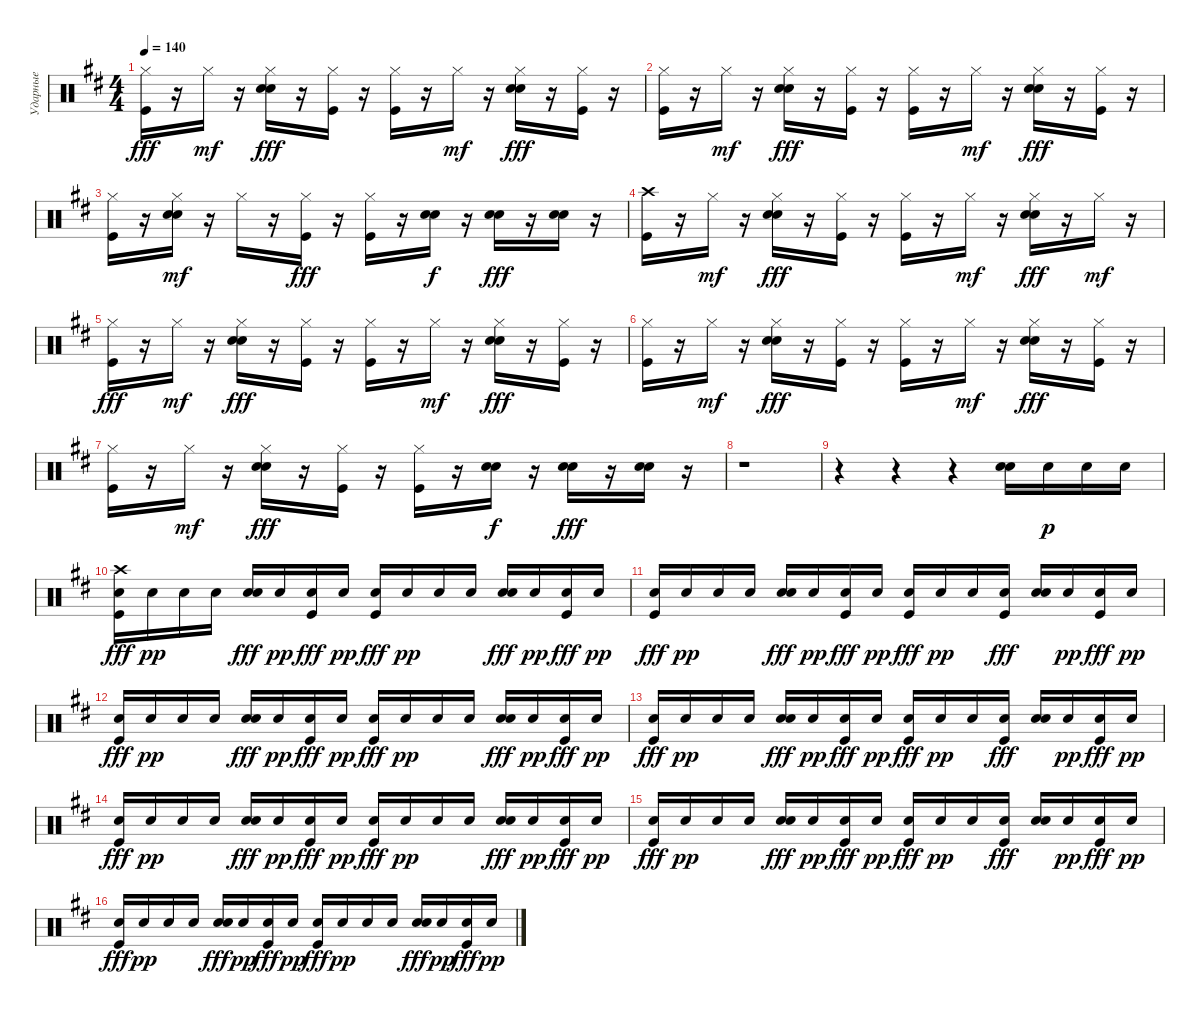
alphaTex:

\track ("Ударные" "Ударные") {instrument percussion}
\staff {score}
\articulation defaults
\ts (4 4)
\tempo 140
\clef neutral
\ks d
("Hi-Hat (closed)" "Kick (hit)").16{dy fff} r.16 "Hi-Hat (closed)".16{dy mf} r.16 ("Hi-Hat (closed)" "Electric Snare (hit)" "Electric Snare (hit)").16{dy fff} r.16 ("Hi-Hat (closed)" "Kick (hit)").16 r.16 ("Hi-Hat (closed)" "Kick (hit)").16 r.16 "Hi-Hat (closed)".16{dy mf} r.16 ("Hi-Hat (closed)" "Electric Snare (hit)" "Electric Snare (hit)").16{dy fff} r.16 ("Hi-Hat (closed)" "Kick (hit)").16 r.16 |
("Hi-Hat (closed)" "Kick (hit)").16 r.16 "Hi-Hat (closed)".16{dy mf} r.16 ("Hi-Hat (closed)" "Electric Snare (hit)" "Electric Snare (hit)").16{dy fff} r.16 ("Hi-Hat (closed)" "Kick (hit)").16 r.16 ("Hi-Hat (closed)" "Kick (hit)").16 r.16 "Hi-Hat (closed)".16{dy mf} r.16 ("Hi-Hat (closed)" "Electric Snare (hit)" "Electric Snare (hit)").16{dy fff} r.16 ("Hi-Hat (closed)" "Kick (hit)").16 r.16 |
("Hi-Hat (closed)" "Kick (hit)").16 r.16 ("Hi-Hat (closed)" "Electric Snare (hit)" "Electric Snare (hit)").16{dy mf} r.16 "Hi-Hat (closed)".16 r.16 ("Hi-Hat (closed)" "Kick (hit)").16{dy fff} r.16 ("Hi-Hat (closed)" "Kick (hit)").16 r.16 ("Electric Snare (hit)" "Electric Snare (hit)").16{dy f} r.16 ("Electric Snare (hit)" "Electric Snare (hit)").16{dy fff} r.16 ("Electric Snare (hit)" "Electric Snare (hit)").16 r.16 |
("Crash high (hit)" "Kick (hit)").16 r.16 "Hi-Hat (closed)".16{dy mf} r.16 ("Hi-Hat (closed)" "Electric Snare (hit)" "Electric Snare (hit)").16{dy fff} r.16 ("Hi-Hat (closed)" "Kick (hit)").16 r.16 ("Hi-Hat (closed)" "Kick (hit)").16 r.16 "Hi-Hat (closed)".16{dy mf} r.16 ("Hi-Hat (closed)" "Electric Snare (hit)" "Electric Snare (hit)").16{dy fff} r.16 "Hi-Hat (closed)".16{dy mf} r.16 |
("Hi-Hat (closed)" "Kick (hit)").16{dy fff} r.16 "Hi-Hat (closed)".16{dy mf} r.16 ("Hi-Hat (closed)" "Electric Snare (hit)" "Electric Snare (hit)").16{dy fff} r.16 ("Hi-Hat (closed)" "Kick (hit)").16 r.16 ("Hi-Hat (closed)" "Kick (hit)").16 r.16 "Hi-Hat (closed)".16{dy mf} r.16 ("Hi-Hat (closed)" "Electric Snare (hit)" "Electric Snare (hit)").16{dy fff} r.16 ("Hi-Hat (closed)" "Kick (hit)").16 r.16 |
("Hi-Hat (closed)" "Kick (hit)").16 r.16 "Hi-Hat (closed)".16{dy mf} r.16 ("Hi-Hat (closed)" "Electric Snare (hit)" "Electric Snare (hit)").16{dy fff} r.16 ("Hi-Hat (closed)" "Kick (hit)").16 r.16 ("Hi-Hat (closed)" "Kick (hit)").16 r.16 "Hi-Hat (closed)".16{dy mf} r.16 ("Hi-Hat (closed)" "Electric Snare (hit)" "Electric Snare (hit)").16{dy fff} r.16 ("Hi-Hat (closed)" "Kick (hit)").16 r.16 |
("Hi-Hat (closed)" "Kick (hit)").16 r.16 "Hi-Hat (closed)".16{dy mf} r.16 ("Hi-Hat (closed)" "Electric Snare (hit)" "Electric Snare (hit)").16{dy fff} r.16 ("Hi-Hat (closed)" "Kick (hit)").16 r.16 ("Hi-Hat (closed)" "Kick (hit)").16 r.16 ("Electric Snare (hit)" "Electric Snare (hit)").16{dy f} r.16 ("Electric Snare (hit)" "Electric Snare (hit)").16{dy fff} r.16 ("Electric Snare (hit)" "Electric Snare (hit)").16 r.16 |
r.1 |
r.4 r.4 r.4 ("Electric Snare (hit)" "Electric Snare (hit)").16 "Electric Snare (hit)".16{dy p} "Electric Snare (hit)".16 "Electric Snare (hit)".16 |
("Crash high (hit)" "Electric Snare (hit)" "Kick (hit)").16{dy fff} "Electric Snare (hit)".16{dy pp} "Electric Snare (hit)".16 "Electric Snare (hit)".16 ("Electric Snare (hit)" "Electric Snare (hit)").16{dy fff} "Electric Snare (hit)".16{dy pp} ("Electric Snare (hit)" "Kick (hit)").16{dy fff} "Electric Snare (hit)".16{dy pp} ("Electric Snare (hit)" "Kick (hit)").16{dy fff} "Electric Snare (hit)".16{dy pp} "Electric Snare (hit)".16 "Electric Snare (hit)".16 ("Electric Snare (hit)" "Electric Snare (hit)").16{dy fff} "Electric Snare (hit)".16{dy pp} ("Electric Snare (hit)" "Kick (hit)").16{dy fff} "Electric Snare (hit)".16{dy pp} |
("Electric Snare (hit)" "Kick (hit)").16{dy fff} "Electric Snare (hit)".16{dy pp} "Electric Snare (hit)".16 "Electric Snare (hit)".16 ("Electric Snare (hit)" "Electric Snare (hit)").16{dy fff} "Electric Snare (hit)".16{dy pp} ("Electric Snare (hit)" "Kick (hit)").16{dy fff} "Electric Snare (hit)".16{dy pp} ("Electric Snare (hit)" "Kick (hit)").16{dy fff} "Electric Snare (hit)".16{dy pp} "Electric Snare (hit)".16 ("Electric Snare (hit)" "Kick (hit)").16{dy fff} ("Electric Snare (hit)" "Electric Snare (hit)").16 "Electric Snare (hit)".16{dy pp} ("Electric Snare (hit)" "Kick (hit)").16{dy fff} "Electric Snare (hit)".16{dy pp} |
("Electric Snare (hit)" "Kick (hit)").16{dy fff} "Electric Snare (hit)".16{dy pp} "Electric Snare (hit)".16 "Electric Snare (hit)".16 ("Electric Snare (hit)" "Electric Snare (hit)").16{dy fff} "Electric Snare (hit)".16{dy pp} ("Electric Snare (hit)" "Kick (hit)").16{dy fff} "Electric Snare (hit)".16{dy pp} ("Electric Snare (hit)" "Kick (hit)").16{dy fff} "Electric Snare (hit)".16{dy pp} "Electric Snare (hit)".16 "Electric Snare (hit)".16 ("Electric Snare (hit)" "Electric Snare (hit)").16{dy fff} "Electric Snare (hit)".16{dy pp} ("Electric Snare (hit)" "Kick (hit)").16{dy fff} "Electric Snare (hit)".16{dy pp} |
("Electric Snare (hit)" "Kick (hit)").16{dy fff} "Electric Snare (hit)".16{dy pp} "Electric Snare (hit)".16 "Electric Snare (hit)".16 ("Electric Snare (hit)" "Electric Snare (hit)").16{dy fff} "Electric Snare (hit)".16{dy pp} ("Electric Snare (hit)" "Kick (hit)").16{dy fff} "Electric Snare (hit)".16{dy pp} ("Electric Snare (hit)" "Kick (hit)").16{dy fff} "Electric Snare (hit)".16{dy pp} "Electric Snare (hit)".16 ("Electric Snare (hit)" "Kick (hit)").16{dy fff} ("Electric Snare (hit)" "Electric Snare (hit)").16 "Electric Snare (hit)".16{dy pp} ("Electric Snare (hit)" "Kick (hit)").16{dy fff} "Electric Snare (hit)".16{dy pp} |
("Electric Snare (hit)" "Kick (hit)").16{dy fff} "Electric Snare (hit)".16{dy pp} "Electric Snare (hit)".16 "Electric Snare (hit)".16 ("Electric Snare (hit)" "Electric Snare (hit)").16{dy fff} "Electric Snare (hit)".16{dy pp} ("Electric Snare (hit)" "Kick (hit)").16{dy fff} "Electric Snare (hit)".16{dy pp} ("Electric Snare (hit)" "Kick (hit)").16{dy fff} "Electric Snare (hit)".16{dy pp} "Electric Snare (hit)".16 "Electric Snare (hit)".16 ("Electric Snare (hit)" "Electric Snare (hit)").16{dy fff} "Electric Snare (hit)".16{dy pp} ("Electric Snare (hit)" "Kick (hit)").16{dy fff} "Electric Snare (hit)".16{dy pp} |
("Electric Snare (hit)" "Kick (hit)").16{dy fff} "Electric Snare (hit)".16{dy pp} "Electric Snare (hit)".16 "Electric Snare (hit)".16 ("Electric Snare (hit)" "Electric Snare (hit)").16{dy fff} "Electric Snare (hit)".16{dy pp} ("Electric Snare (hit)" "Kick (hit)").16{dy fff} "Electric Snare (hit)".16{dy pp} ("Electric Snare (hit)" "Kick (hit)").16{dy fff} "Electric Snare (hit)".16{dy pp} "Electric Snare (hit)".16 ("Electric Snare (hit)" "Kick (hit)").16{dy fff} ("Electric Snare (hit)" "Electric Snare (hit)").16 "Electric Snare (hit)".16{dy pp} ("Electric Snare (hit)" "Kick (hit)").16{dy fff} "Electric Snare (hit)".16{dy pp} |
("Electric Snare (hit)" "Kick (hit)").16{dy fff} "Electric Snare (hit)".16{dy pp} "Electric Snare (hit)".16 "Electric Snare (hit)".16 ("Electric Snare (hit)" "Electric Snare (hit)").16{dy fff} "Electric Snare (hit)".16{dy pp} ("Electric Snare (hit)" "Kick (hit)").16{dy fff} "Electric Snare (hit)".16{dy pp} ("Electric Snare (hit)" "Kick (hit)").16{dy fff} "Electric Snare (hit)".16{dy pp} "Electric Snare (hit)".16 "Electric Snare (hit)".16 ("Electric Snare (hit)" "Electric Snare (hit)").16{dy fff} "Electric Snare (hit)".16{dy pp} ("Electric Snare (hit)" "Kick (hit)").16{dy fff} "Electric Snare (hit)".16{dy pp}
